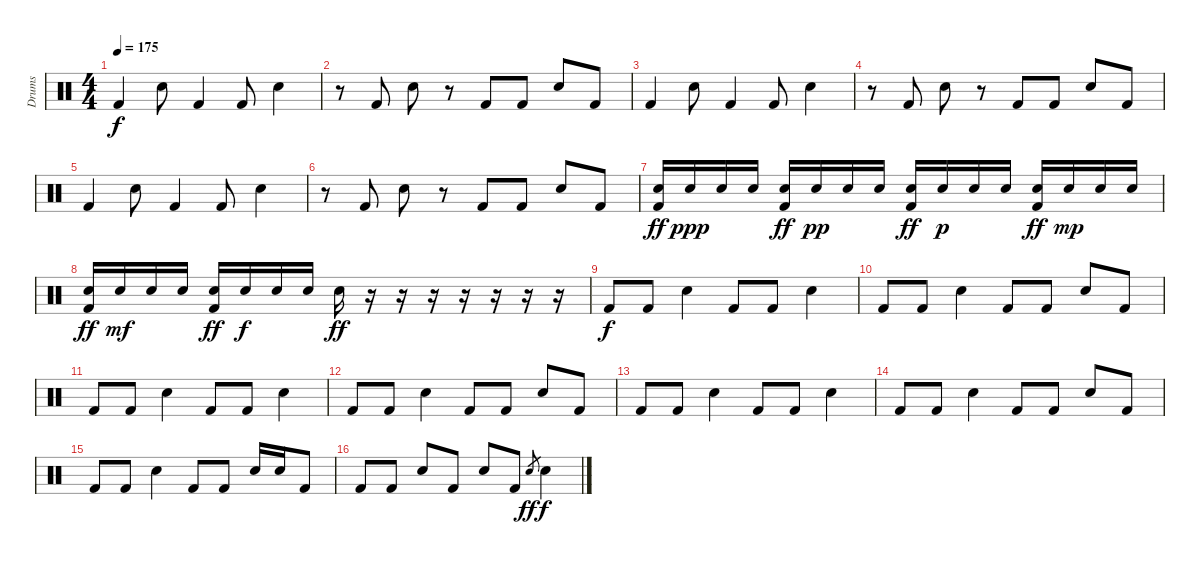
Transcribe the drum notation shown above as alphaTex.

\track ("Drums" "Drums") {instrument percussion}
\staff {score}
\articulation defaults
\ts (4 4)
\tempo 175
\clef neutral
\ks c "Kick (hit) 2".4{dy f volume 9} "Snare (hit) 2".8 "Kick (hit) 2".4 "Kick (hit) 2".8 "Snare (hit) 2".4
|
r.8 "Kick (hit) 2".8 "Snare (hit) 2".8 r.8 "Kick (hit) 2".8 "Kick (hit) 2".8 "Snare (hit) 2".8 "Kick (hit) 2".8 |
"Kick (hit) 2".4 "Snare (hit) 2".8 "Kick (hit) 2".4 "Kick (hit) 2".8 "Snare (hit) 2".4 |
r.8 "Kick (hit) 2".8 "Snare (hit) 2".8 r.8 "Kick (hit) 2".8 "Kick (hit) 2".8 "Snare (hit) 2".8 "Kick (hit) 2".8 |
"Kick (hit) 2".4 "Snare (hit) 2".8 "Kick (hit) 2".4 "Kick (hit) 2".8 "Snare (hit) 2".4 |
r.8 "Kick (hit) 2".8 "Snare (hit) 2".8 r.8 "Kick (hit) 2".8 "Kick (hit) 2".8 "Snare (hit) 2".8 "Kick (hit) 2".8 |
("Snare (hit) 2" "Kick (hit) 2").16{dy ff} "Snare (hit) 2".16{dy ppp} "Snare (hit) 2".16 "Snare (hit) 2".16 ("Snare (hit) 2" "Kick (hit) 2").16{dy ff} "Snare (hit) 2".16{dy pp} "Snare (hit) 2".16 "Snare (hit) 2".16 ("Snare (hit) 2" "Kick (hit) 2").16{dy ff} "Snare (hit) 2".16{dy p} "Snare (hit) 2".16 "Snare (hit) 2".16 ("Snare (hit) 2" "Kick (hit) 2").16{dy ff} "Snare (hit) 2".16{dy mp} "Snare (hit) 2".16 "Snare (hit) 2".16 |
("Snare (hit) 2" "Kick (hit) 2").16{dy ff} "Snare (hit) 2".16{dy mf} "Snare (hit) 2".16 "Snare (hit) 2".16 ("Snare (hit) 2" "Kick (hit) 2").16{dy ff} "Snare (hit) 2".16{dy f} "Snare (hit) 2".16 "Snare (hit) 2".16 "Snare (hit) 2".16{dy ff} r.16 r.16 r.16 r.16 r.16 r.16 r.16 |
"Kick (hit) 2".8{dy f} "Kick (hit) 2".8 "Snare (hit) 2".4 "Kick (hit) 2".8 "Kick (hit) 2".8 "Snare (hit) 2".4 |
"Kick (hit) 2".8 "Kick (hit) 2".8 "Snare (hit) 2".4 "Kick (hit) 2".8 "Kick (hit) 2".8 "Snare (hit) 2".8 "Kick (hit) 2".8 |
"Kick (hit) 2".8 "Kick (hit) 2".8 "Snare (hit) 2".4 "Kick (hit) 2".8 "Kick (hit) 2".8 "Snare (hit) 2".4 |
"Kick (hit) 2".8 "Kick (hit) 2".8 "Snare (hit) 2".4 "Kick (hit) 2".8 "Kick (hit) 2".8 "Snare (hit) 2".8 "Kick (hit) 2".8 |
"Kick (hit) 2".8 "Kick (hit) 2".8 "Snare (hit) 2".4 "Kick (hit) 2".8 "Kick (hit) 2".8 "Snare (hit) 2".4 |
"Kick (hit) 2".8 "Kick (hit) 2".8 "Snare (hit) 2".4 "Kick (hit) 2".8 "Kick (hit) 2".8 "Snare (hit) 2".8 "Kick (hit) 2".8 |
"Kick (hit) 2".8 "Kick (hit) 2".8 "Snare (hit) 2".4 "Kick (hit) 2".8 "Kick (hit) 2".8 "Snare (hit) 2".16 "Snare (hit) 2".16 "Kick (hit) 2".8 |
"Kick (hit) 2".8 "Kick (hit) 2".8 "Snare (hit) 2".8 "Kick (hit) 2".8 "Snare (hit) 2".8 "Kick (hit) 2".8 "Snare (hit) 2".8{gr dy ff} "Snare (hit) 2".4{dy f}
